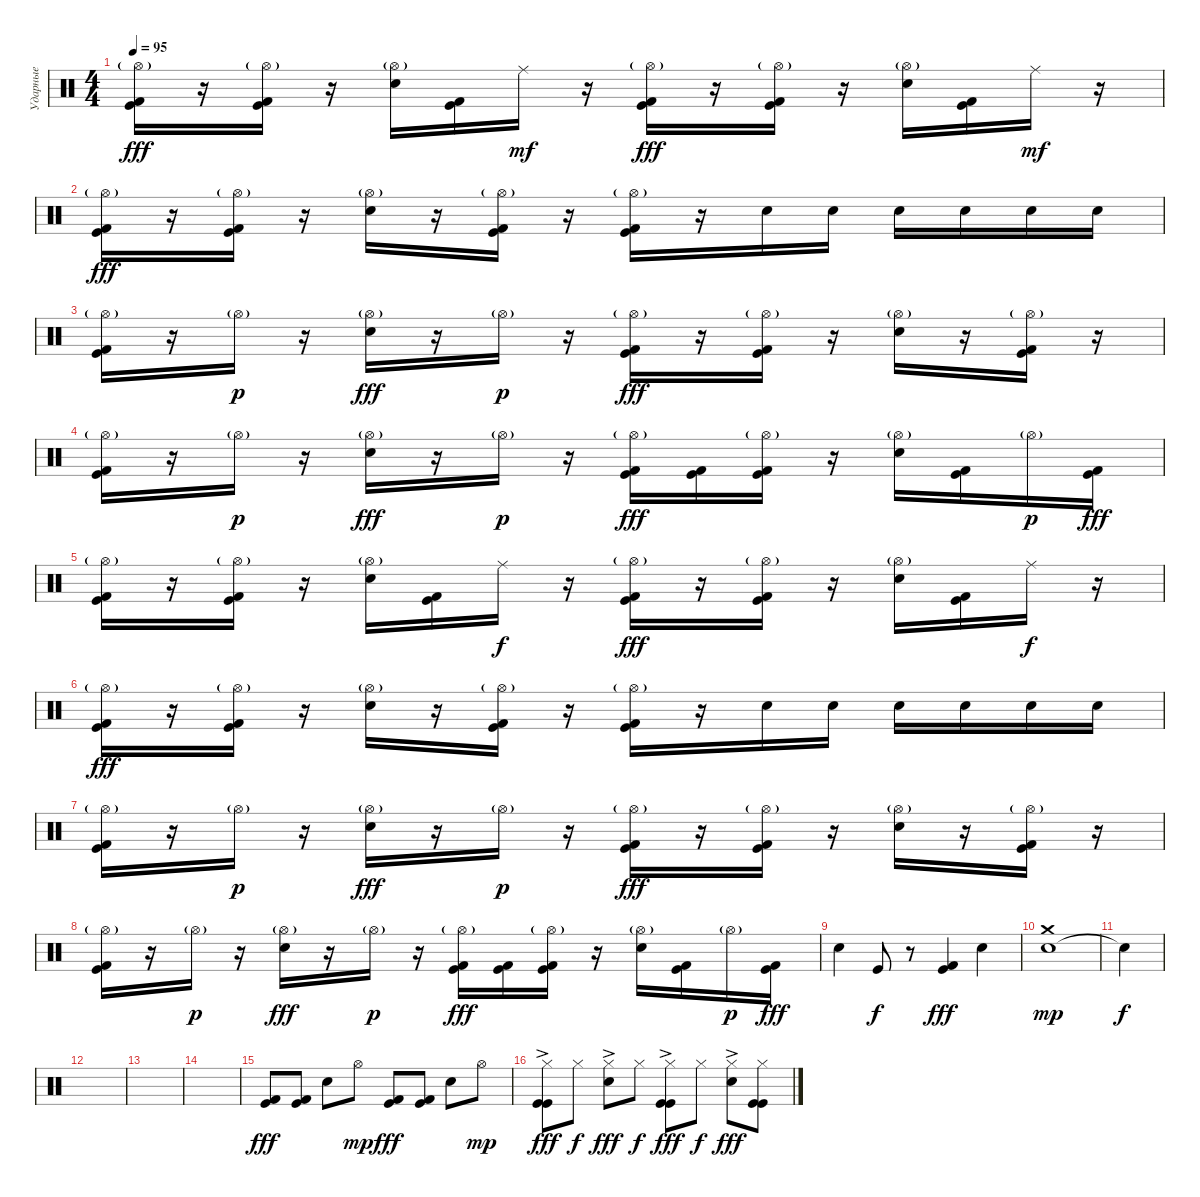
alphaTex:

\track ("Ударные" "Ударные") {instrument percussion}
\staff {score}
\articulation defaults
\ts (4 4)
\tempo 95
\clef neutral
\ks c
("Hi-Hat (open)"{g} "Kick (hit) 2" "Kick (hit)").16{dy fff} r.16 ("Hi-Hat (open)"{g} "Kick (hit) 2" "Kick (hit)").16 r.16 ("Hi-Hat (open)"{g} "Electric Snare (hit)").16 ("Kick (hit) 2" "Kick (hit)").16 "Ride (middle)".16{dy mf} r.16 ("Hi-Hat (open)"{g} "Kick (hit) 2" "Kick (hit)").16{dy fff} r.16 ("Hi-Hat (open)"{g} "Kick (hit) 2" "Kick (hit)").16 r.16 ("Hi-Hat (open)"{g} "Electric Snare (hit)").16 ("Kick (hit) 2" "Kick (hit)").16 "Ride (middle)".16{dy mf} r.16 |
("Hi-Hat (open)"{g} "Kick (hit) 2" "Kick (hit)").16{dy fff} r.16 ("Hi-Hat (open)"{g} "Kick (hit) 2" "Kick (hit)").16 r.16 ("Hi-Hat (open)"{g} "Electric Snare (hit)").16 r.16 ("Hi-Hat (open)"{g} "Kick (hit) 2" "Kick (hit)").16 r.16 ("Hi-Hat (open)"{g} "Kick (hit) 2" "Kick (hit)").16 r.16 "Electric Snare (hit)".16 "Electric Snare (hit)".16 "Electric Snare (hit)".16 "Electric Snare (hit)".16 "Electric Snare (hit)".16 "Electric Snare (hit)".16 |
("Hi-Hat (open)"{g} "Kick (hit) 2" "Kick (hit)").16 r.16 "Hi-Hat (open)"{g}.16{dy p} r.16 ("Hi-Hat (open)"{g} "Electric Snare (hit)").16{dy fff} r.16 "Hi-Hat (open)"{g}.16{dy p} r.16 ("Hi-Hat (open)"{g} "Kick (hit) 2" "Kick (hit)").16{dy fff} r.16 ("Hi-Hat (open)"{g} "Kick (hit) 2" "Kick (hit)").16 r.16 ("Hi-Hat (open)"{g} "Electric Snare (hit)").16 r.16 ("Hi-Hat (open)"{g} "Kick (hit) 2" "Kick (hit)").16 r.16 |
("Hi-Hat (open)"{g} "Kick (hit) 2" "Kick (hit)").16 r.16 "Hi-Hat (open)"{g}.16{dy p} r.16 ("Hi-Hat (open)"{g} "Electric Snare (hit)").16{dy fff} r.16 "Hi-Hat (open)"{g}.16{dy p} r.16 ("Hi-Hat (open)"{g} "Kick (hit) 2" "Kick (hit)").16{dy fff} ("Kick (hit) 2" "Kick (hit)").16 ("Hi-Hat (open)"{g} "Kick (hit) 2" "Kick (hit)").16 r.16 ("Hi-Hat (open)"{g} "Electric Snare (hit)").16 ("Kick (hit) 2" "Kick (hit)").16 "Hi-Hat (open)"{g}.16{dy p} ("Kick (hit) 2" "Kick (hit)").16{dy fff} |
("Hi-Hat (open)"{g} "Kick (hit) 2" "Kick (hit)").16 r.16 ("Hi-Hat (open)"{g} "Kick (hit) 2" "Kick (hit)").16 r.16 ("Hi-Hat (open)"{g} "Electric Snare (hit)").16 ("Kick (hit) 2" "Kick (hit)").16 "Ride (middle)".16{dy f} r.16 ("Hi-Hat (open)"{g} "Kick (hit) 2" "Kick (hit)").16{dy fff} r.16 ("Hi-Hat (open)"{g} "Kick (hit) 2" "Kick (hit)").16 r.16 ("Hi-Hat (open)"{g} "Electric Snare (hit)").16 ("Kick (hit) 2" "Kick (hit)").16 "Ride (middle)".16{dy f} r.16 |
("Hi-Hat (open)"{g} "Kick (hit) 2" "Kick (hit)").16{dy fff} r.16 ("Hi-Hat (open)"{g} "Kick (hit) 2" "Kick (hit)").16 r.16 ("Hi-Hat (open)"{g} "Electric Snare (hit)").16 r.16 ("Hi-Hat (open)"{g} "Kick (hit) 2" "Kick (hit)").16 r.16 ("Hi-Hat (open)"{g} "Kick (hit) 2" "Kick (hit)").16 r.16 "Electric Snare (hit)".16 "Electric Snare (hit)".16 "Electric Snare (hit)".16 "Electric Snare (hit)".16 "Electric Snare (hit)".16 "Electric Snare (hit)".16 |
("Hi-Hat (open)"{g} "Kick (hit) 2" "Kick (hit)").16 r.16 "Hi-Hat (open)"{g}.16{dy p} r.16 ("Hi-Hat (open)"{g} "Electric Snare (hit)").16{dy fff} r.16 "Hi-Hat (open)"{g}.16{dy p} r.16 ("Hi-Hat (open)"{g} "Kick (hit) 2" "Kick (hit)").16{dy fff} r.16 ("Hi-Hat (open)"{g} "Kick (hit) 2" "Kick (hit)").16 r.16 ("Hi-Hat (open)"{g} "Electric Snare (hit)").16 r.16 ("Hi-Hat (open)"{g} "Kick (hit) 2" "Kick (hit)").16 r.16 |
("Hi-Hat (open)"{g} "Kick (hit) 2" "Kick (hit)").16 r.16 "Hi-Hat (open)"{g}.16{dy p} r.16 ("Hi-Hat (open)"{g} "Electric Snare (hit)").16{dy fff} r.16 "Hi-Hat (open)"{g}.16{dy p} r.16 ("Hi-Hat (open)"{g} "Kick (hit) 2" "Kick (hit)").16{dy fff} ("Kick (hit) 2" "Kick (hit)").16 ("Hi-Hat (open)"{g} "Kick (hit) 2" "Kick (hit)").16 r.16 ("Hi-Hat (open)"{g} "Electric Snare (hit)").16 ("Kick (hit) 2" "Kick (hit)").16 "Hi-Hat (open)"{g}.16{dy p} ("Kick (hit) 2" "Kick (hit)").16{dy fff} |
"Snare (hit) 2".4 "Kick (hit)".8{dy f} r.8 ("Kick (hit)" "Kick (hit) 2").4{dy fff} "Snare (hit) 2".4 |
("Snare (hit) 2" "Crash medium (hit)").1{dy mp} |
"Snare (hit)"{t}.4{dy f} |
|
|
|
("Kick (hit) 2" "Kick (hit)").8{dy fff} ("Kick (hit) 2" "Kick (hit)").8 "Snare (hit) 2".8 "Hi-Hat (open)".8{dy mp} ("Kick (hit) 2" "Kick (hit)").8{dy fff} ("Kick (hit) 2" "Kick (hit)").8 "Snare (hit) 2".8 "Hi-Hat (open)".8{dy mp} |
("Hi-Hat (closed)"{ac} "Kick (hit)" "Kick (hit)").8{dy fff} "Hi-Hat (closed)".8{dy f} ("Hi-Hat (closed)"{ac} "Snare (hit) 2").8{dy fff} "Hi-Hat (closed)".8{dy f} ("Hi-Hat (closed)"{ac} "Kick (hit)" "Kick (hit)").8{dy fff} "Hi-Hat (closed)".8{dy f} ("Hi-Hat (closed)"{ac} "Snare (hit) 2").8{dy fff} ("Hi-Hat (closed)" "Kick (hit)" "Kick (hit)").8
